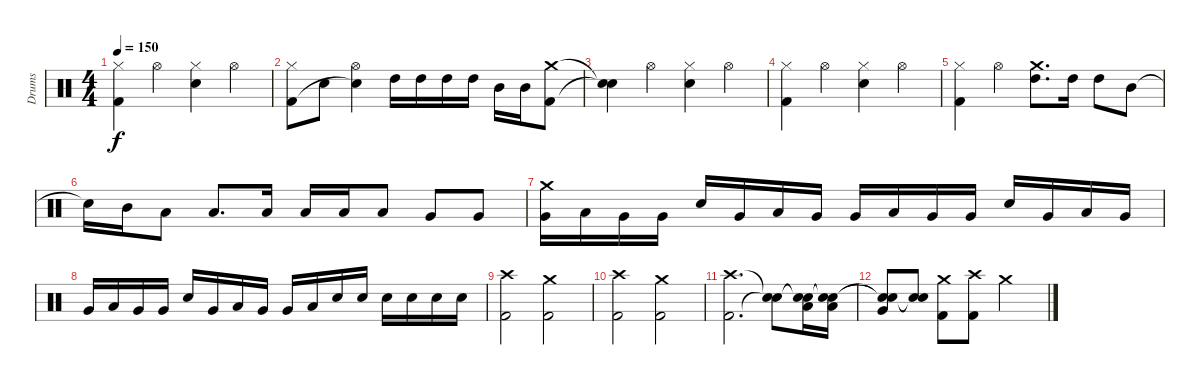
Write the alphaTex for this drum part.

\track ("Drums" "Drums") {instrument percussion}
\staff {score}
\articulation defaults
\ts (4 4)
\tempo 150
\clef neutral
\ks c
("Hi-Hat (closed)" "Kick (hit) 2").4{dy f} "Hi-Hat (open)".4 ("Hi-Hat (closed)" "Electric Snare (hit)").4 "Hi-Hat (open)".4 |
("Hi-Hat (closed)" "Kick (hit) 2").8 "Electric Snare (hit)".8 ("Hi-Hat (open)" "Snare (hit)"{t}).4 "High Tom (hit)".16 "High Tom (hit)".16 "High Tom (hit)".16 "High Tom (hit)".16 "Mid Tom (hit)".16 "Mid Tom (hit)".16 ("Crash medium (hit)" "Kick (hit) 2").8 |
("Snare (hit)"{t} "Snare (hit)"{t}).4 "Hi-Hat (open)".4 ("Hi-Hat (closed)" "Electric Snare (hit)").4 "Hi-Hat (open)".4 |
("Hi-Hat (closed)" "Kick (hit) 2").4 "Hi-Hat (open)".4 ("Hi-Hat (closed)" "Electric Snare (hit)").4 "Hi-Hat (open)".4 |
("Hi-Hat (closed)" "Kick (hit) 2").4 "Hi-Hat (open)".4 ("Crash medium (hit)" "High Tom (hit)").8{d} "High Tom (hit)".16 "High Tom (hit)".8 "Mid Tom (hit)".8 |
"Snare (hit)"{t}.16 "Mid Tom (hit)".16 "Low Tom (hit)".8 "Low Tom (hit)".8{d} "Low Tom (hit)".16 "Low Tom (hit)".16 "Low Tom (hit)".16 "Low Tom (hit)".8 "Very Low Tom (hit)".8 "Very Low Tom (hit)".8 |
("Very Low Tom (hit)" "Crash medium (hit)").16 "Low Tom (hit)".16 "Very Low Tom (hit)".16 "Very Low Tom (hit)".16 "Electric Snare (hit)".16 "Very Low Tom (hit)".16 "Low Tom (hit)".16 "Very Low Tom (hit)".16 "Very Low Tom (hit)".16 "Low Tom (hit)".16 "Very Low Tom (hit)".16 "Very Low Tom (hit)".16 "Electric Snare (hit)".16 "Very Low Tom (hit)".16 "Low Tom (hit)".16 "Very Low Tom (hit)".16 |
"Very Low Tom (hit)".16 "Low Tom (hit)".16 "Very Low Tom (hit)".16 "Very Low Tom (hit)".16 "Electric Snare (hit)".16 "Very Low Tom (hit)".16 "Low Tom (hit)".16 "Very Low Tom (hit)".16 "Very Low Tom (hit)".16 "Low Tom (hit)".16 "Electric Snare (hit)".16 "Electric Snare (hit)".16 "Electric Snare (hit)".16 "Electric Snare (hit)".16 "Electric Snare (hit)".16 "Electric Snare (hit)".16 |
("Crash high (hit)" "Kick (hit) 2").2 ("Crash medium (hit)" "Kick (hit) 2").2 |
("Crash high (hit)" "Kick (hit) 2").2 ("Crash medium (hit)" "Kick (hit) 2").2 |
("Crash high (hit)" "Kick (hit) 2").2{d} ("Snare (hit)"{t} "Snare (hit)"{t}).8 ("Snare (hit)"{t} "Snare (hit)"{t} "Low Tom (hit)").16 ("Snare (hit)"{t} "Snare (hit)"{t} "Low Tom (hit)").16 |
("Snare (hit)"{t} "Snare (hit)"{t} "Very Low Tom (hit)").8 ("Snare (hit)"{t} "Snare (hit)"{t}).8 ("Crash medium (hit)" "Kick (hit) 2").8 ("Crash high (hit)" "Kick (hit) 2").8 "Crash medium (hit)".2
